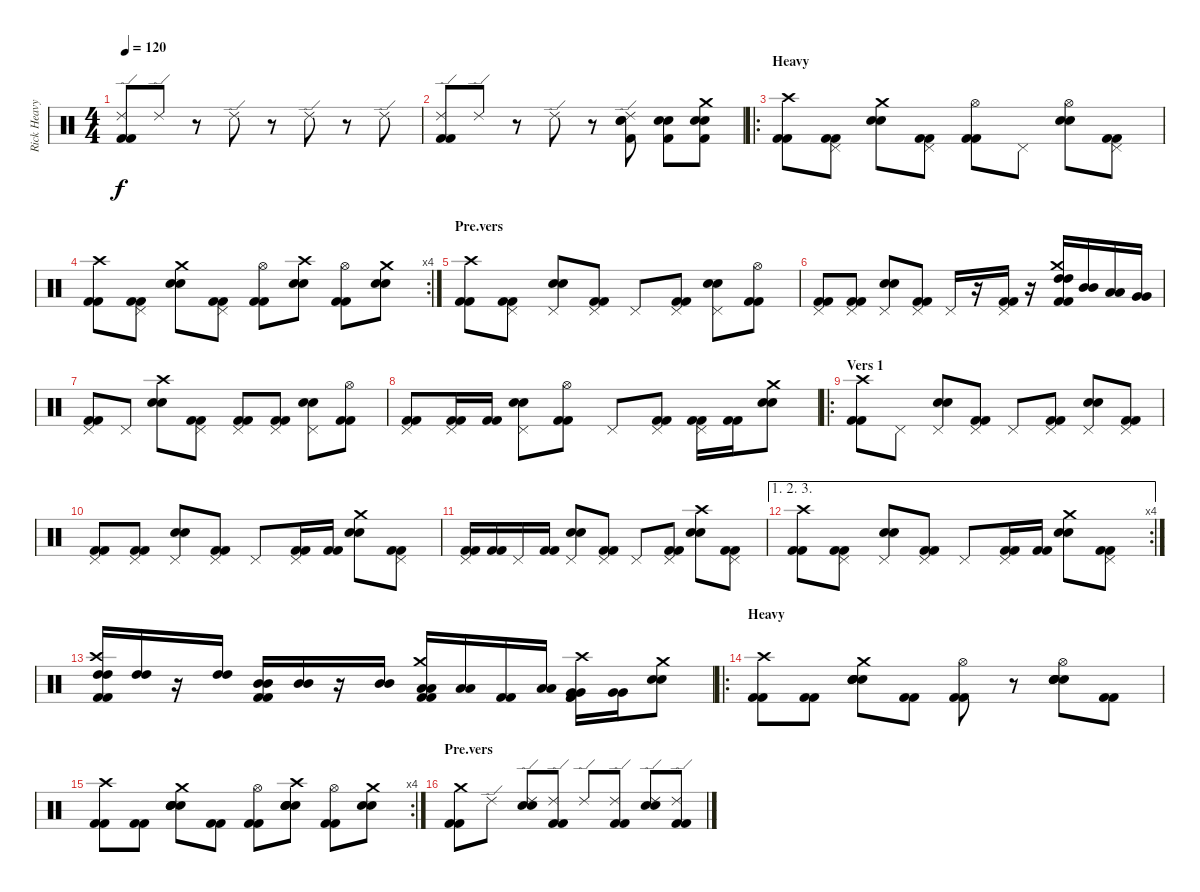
\track ("Rick Heavy" "Rick Heavy") {instrument percussion}
\staff {score}
\articulation defaults
\ts (4 4)
\tempo 120
\clef neutral
\ks c
("Ride (edge) 2" "Kick (hit) 2" "Kick (hit) 2").8{dy f} "Ride (edge) 2".8 r.8 "Ride (edge) 2".8 r.8 "Ride (edge) 2".8 r.8 "Ride (edge) 2".8 |
("Ride (edge) 2" "Kick (hit) 2" "Kick (hit) 2").8 "Ride (edge) 2".8 r.8 "Ride (edge) 2".8 r.8 ("Ride (edge) 2" "Snare (hit) 2" "Electric Snare (hit)" "Kick (hit) 2").8 ("Snare (hit) 2" "Electric Snare (hit)" "Kick (hit) 2").8 ("Crash medium (hit)" "Snare (hit) 2" "Electric Snare (hit)" "Kick (hit) 2").8 |
\ro
\section ("" "Heavy")
("Crash high (hit)" "Kick (hit) 2" "Kick (hit) 2").8 ("Pedal Hi-Hat (hit)" "Kick (hit) 2" "Kick (hit) 2").8 ("Crash medium (hit)" "Snare (hit) 2" "Electric Snare (hit)").8 ("Pedal Hi-Hat (hit)" "Kick (hit) 2" "Kick (hit) 2").8 ("Hi-Hat (open)" "Kick (hit) 2" "Kick (hit) 2").8 "Pedal Hi-Hat (hit)".8 ("Hi-Hat (open)" "Electric Snare (hit)" "Snare (hit) 2").8 ("Pedal Hi-Hat (hit)" "Kick (hit) 2" "Kick (hit) 2").8 |
\rc 4
("Crash high (hit)" "Kick (hit) 2" "Kick (hit) 2").8 ("Pedal Hi-Hat (hit)" "Kick (hit) 2" "Kick (hit) 2").8 ("Crash medium (hit)" "Snare (hit) 2" "Electric Snare (hit)").8 ("Pedal Hi-Hat (hit)" "Kick (hit) 2" "Kick (hit) 2").8 ("Hi-Hat (open)" "Kick (hit) 2" "Kick (hit) 2").8 ("Crash high (hit)" "Electric Snare (hit)" "Snare (hit) 2").8 ("Hi-Hat (open)" "Kick (hit) 2" "Kick (hit) 2").8 ("Crash medium (hit)" "Electric Snare (hit)" "Snare (hit) 2").8 |
\section ("" "Pre.vers")
("Crash high (hit)" "Kick (hit) 2" "Kick (hit) 2").8 ("Pedal Hi-Hat (hit)" "Kick (hit) 2" "Kick (hit) 2").8 ("Pedal Hi-Hat (hit)" "Electric Snare (hit)" "Snare (hit) 2").8 ("Pedal Hi-Hat (hit)" "Kick (hit) 2" "Kick (hit) 2").8 "Pedal Hi-Hat (hit)".8 ("Pedal Hi-Hat (hit)" "Kick (hit) 2" "Kick (hit) 2").8 ("Pedal Hi-Hat (hit)" "Electric Snare (hit)" "Snare (hit) 2").8 ("Hi-Hat (open)" "Kick (hit) 2" "Kick (hit) 2").8 |
("Pedal Hi-Hat (hit)" "Kick (hit) 2" "Kick (hit) 2").8 ("Pedal Hi-Hat (hit)" "Kick (hit) 2" "Kick (hit) 2").8 ("Pedal Hi-Hat (hit)" "Electric Snare (hit)" "Snare (hit) 2").8 ("Pedal Hi-Hat (hit)" "Kick (hit) 2" "Kick (hit) 2").8 "Pedal Hi-Hat (hit)".16 r.16 ("Pedal Hi-Hat (hit)" "Kick (hit) 2" "Kick (hit) 2").16 r.16 ("Crash medium (hit)" "Kick (hit) 2" "High Tom (hit)" "High Tom (hit)" "Kick (hit) 2").16 ("Mid Tom (hit)" "Mid Tom (hit)").16 ("Low Tom (hit)" "Low Tom (hit)").16 ("Very Low Tom (hit)" "Very Low Tom (hit)").16 |
("Pedal Hi-Hat (hit)" "Kick (hit) 2" "Kick (hit) 2").8 "Pedal Hi-Hat (hit)".8 ("Crash high (hit)" "Electric Snare (hit)" "Snare (hit) 2").8 ("Pedal Hi-Hat (hit)" "Kick (hit) 2" "Kick (hit) 2").8 ("Pedal Hi-Hat (hit)" "Kick (hit) 2" "Kick (hit) 2").8 ("Pedal Hi-Hat (hit)" "Kick (hit) 2" "Kick (hit) 2").8 ("Pedal Hi-Hat (hit)" "Electric Snare (hit)" "Snare (hit) 2").8 ("Hi-Hat (open)" "Kick (hit) 2" "Kick (hit) 2").8 |
("Pedal Hi-Hat (hit)" "Kick (hit) 2" "Kick (hit) 2").8 ("Pedal Hi-Hat (hit)" "Kick (hit) 2" "Kick (hit) 2").16 ("Kick (hit) 2" "Kick (hit) 2").16 ("Pedal Hi-Hat (hit)" "Electric Snare (hit)" "Snare (hit) 2").8 ("Hi-Hat (open)" "Kick (hit) 2" "Kick (hit) 2").8 "Pedal Hi-Hat (hit)".8 ("Pedal Hi-Hat (hit)" "Kick (hit) 2" "Kick (hit) 2").8 ("Pedal Hi-Hat (hit)" "Kick (hit) 2" "Kick (hit) 2").16 ("Kick (hit) 2" "Kick (hit) 2").16 ("Crash medium (hit)" "Electric Snare (hit)" "Snare (hit) 2").8 |
\ro
\section ("" "Vers 1")
("Crash high (hit)" "Kick (hit) 2" "Kick (hit) 2").8 "Pedal Hi-Hat (hit)".8 ("Pedal Hi-Hat (hit)" "Electric Snare (hit)" "Snare (hit) 2").8 ("Pedal Hi-Hat (hit)" "Kick (hit) 2" "Kick (hit) 2").8 "Pedal Hi-Hat (hit)".8 ("Pedal Hi-Hat (hit)" "Kick (hit) 2" "Kick (hit) 2").8 ("Pedal Hi-Hat (hit)" "Electric Snare (hit)" "Snare (hit) 2").8 ("Pedal Hi-Hat (hit)" "Kick (hit) 2" "Kick (hit) 2").8 |
("Pedal Hi-Hat (hit)" "Kick (hit) 2" "Kick (hit) 2").8 ("Pedal Hi-Hat (hit)" "Kick (hit) 2" "Kick (hit) 2").8 ("Pedal Hi-Hat (hit)" "Electric Snare (hit)" "Snare (hit) 2").8 ("Pedal Hi-Hat (hit)" "Kick (hit) 2" "Kick (hit) 2").8 "Pedal Hi-Hat (hit)".8 ("Pedal Hi-Hat (hit)" "Kick (hit) 2" "Kick (hit) 2").16 ("Kick (hit) 2" "Kick (hit) 2").16 ("Crash medium (hit)" "Electric Snare (hit)" "Snare (hit) 2").8 ("Pedal Hi-Hat (hit)" "Kick (hit) 2" "Kick (hit) 2").8 |
("Pedal Hi-Hat (hit)" "Kick (hit) 2" "Kick (hit) 2").16 ("Kick (hit) 2" "Kick (hit) 2").16 "Pedal Hi-Hat (hit)".16 ("Kick (hit) 2" "Kick (hit) 2").16 ("Pedal Hi-Hat (hit)" "Electric Snare (hit)" "Snare (hit) 2").8 ("Pedal Hi-Hat (hit)" "Kick (hit) 2" "Kick (hit) 2").8 "Pedal Hi-Hat (hit)".8 ("Pedal Hi-Hat (hit)" "Kick (hit) 2" "Kick (hit) 2").8 ("Crash high (hit)" "Electric Snare (hit)" "Snare (hit) 2").8 ("Pedal Hi-Hat (hit)" "Kick (hit) 2" "Kick (hit) 2").8 |
\ae (1 2 3)
\rc 4
("Crash high (hit)" "Kick (hit) 2" "Kick (hit) 2").8 ("Pedal Hi-Hat (hit)" "Kick (hit) 2" "Kick (hit) 2").8 ("Pedal Hi-Hat (hit)" "Electric Snare (hit)" "Snare (hit) 2").8 ("Pedal Hi-Hat (hit)" "Kick (hit) 2" "Kick (hit) 2").8 "Pedal Hi-Hat (hit)".8 ("Pedal Hi-Hat (hit)" "Kick (hit) 2" "Kick (hit) 2").16 ("Kick (hit) 2" "Kick (hit) 2").16 ("Crash medium (hit)" "Electric Snare (hit)" "Snare (hit) 2").8 ("Pedal Hi-Hat (hit)" "Kick (hit) 2" "Kick (hit) 2").8 |
("Crash high (hit)" "High Tom (hit)" "High Tom (hit)" "Kick (hit) 2" "Kick (hit) 2").16 ("High Tom (hit)" "High Tom (hit)").16 r.16 ("High Tom (hit)" "High Tom (hit)").16 ("Mid Tom (hit)" "Mid Tom (hit)" "Kick (hit) 2" "Kick (hit) 2").16 ("Mid Tom (hit)" "Mid Tom (hit)").16 r.16 ("Mid Tom (hit)" "Mid Tom (hit)").16 ("Crash medium (hit)" "Low Tom (hit)" "Low Tom (hit)" "Kick (hit) 2" "Kick (hit) 2").16 ("Low Tom (hit)" "Low Tom (hit)").16 ("Kick (hit) 2" "Kick (hit) 2").16 ("Low Tom (hit)" "Low Tom (hit)").16 ("Crash high (hit)" "Very Low Tom (hit)" "Very Low Tom (hit)" "Kick (hit) 2" "Kick (hit) 2").16 ("Very Low Tom (hit)" "Very Low Tom (hit)").16 ("Crash medium (hit)" "Electric Snare (hit)" "Snare (hit) 2").8 |
\ro
\section ("" "Heavy")
("Crash high (hit)" "Kick (hit) 2" "Kick (hit) 2").8 ("Kick (hit) 2" "Kick (hit) 2").8 ("Crash medium (hit)" "Electric Snare (hit)" "Snare (hit) 2" "Snare (hit) 2" "Electric Snare (hit)").8 ("Kick (hit) 2" "Kick (hit) 2").8 ("Hi-Hat (open)" "Kick (hit) 2" "Kick (hit) 2").8 r.8 ("Hi-Hat (open)" "Electric Snare (hit)" "Snare (hit) 2" "Electric Snare (hit)" "Snare (hit) 2").8 ("Kick (hit) 2" "Kick (hit) 2").8 |
\rc 4
("Crash high (hit)" "Kick (hit) 2" "Kick (hit) 2").8 ("Kick (hit) 2" "Kick (hit) 2").8 ("Crash medium (hit)" "Electric Snare (hit)" "Snare (hit) 2" "Snare (hit) 2" "Electric Snare (hit)").8 ("Kick (hit) 2" "Kick (hit) 2").8 ("Hi-Hat (open)" "Kick (hit) 2" "Kick (hit) 2").8 ("Crash high (hit)" "Electric Snare (hit)" "Electric Snare (hit)" "Snare (hit) 2" "Snare (hit) 2").8 ("Hi-Hat (open)" "Kick (hit) 2" "Kick (hit) 2").8 ("Crash medium (hit)" "Electric Snare (hit)" "Snare (hit) 2").8 |
\section ("" "Pre.vers")
("Crash medium (hit)" "Kick (hit) 2" "Kick (hit) 2").8 "Ride (edge) 2".8 ("Ride (edge) 2" "Electric Snare (hit)" "Snare (hit) 2").8 ("Ride (edge) 2" "Kick (hit) 2" "Kick (hit) 2").8 "Ride (edge) 2".8 ("Ride (edge) 2" "Kick (hit) 2" "Kick (hit) 2").8 ("Ride (edge) 2" "Electric Snare (hit)" "Snare (hit) 2").8 ("Ride (edge) 2" "Kick (hit) 2" "Kick (hit) 2").8
